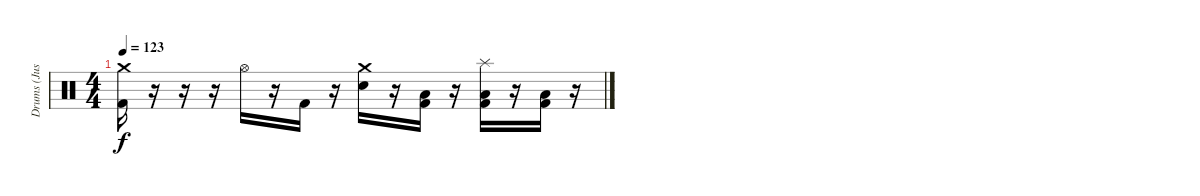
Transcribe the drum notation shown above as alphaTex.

\track ("Drums (Justin)" "Drums (Jus") {instrument percussion}
\staff {score}
\articulation defaults
\ts (4 4)
\tempo 123
\clef neutral
\ks c
("Crash medium (hit)" "Kick (hit) 2").16{dy f} r.16 r.16 r.16 "Hi-Hat (open)".16 r.16 "Kick (hit) 2".16 r.16 ("Electric Snare (hit)" "Crash medium (hit)").16 r.16 ("Low Floor Tom (hit)" "Kick (hit) 2").16 r.16 ("Splash (hit)" "Low Floor Tom (hit)" "Kick (hit) 2").16 r.16 ("Low Floor Tom (hit)" "Kick (hit) 2").16 r.16
